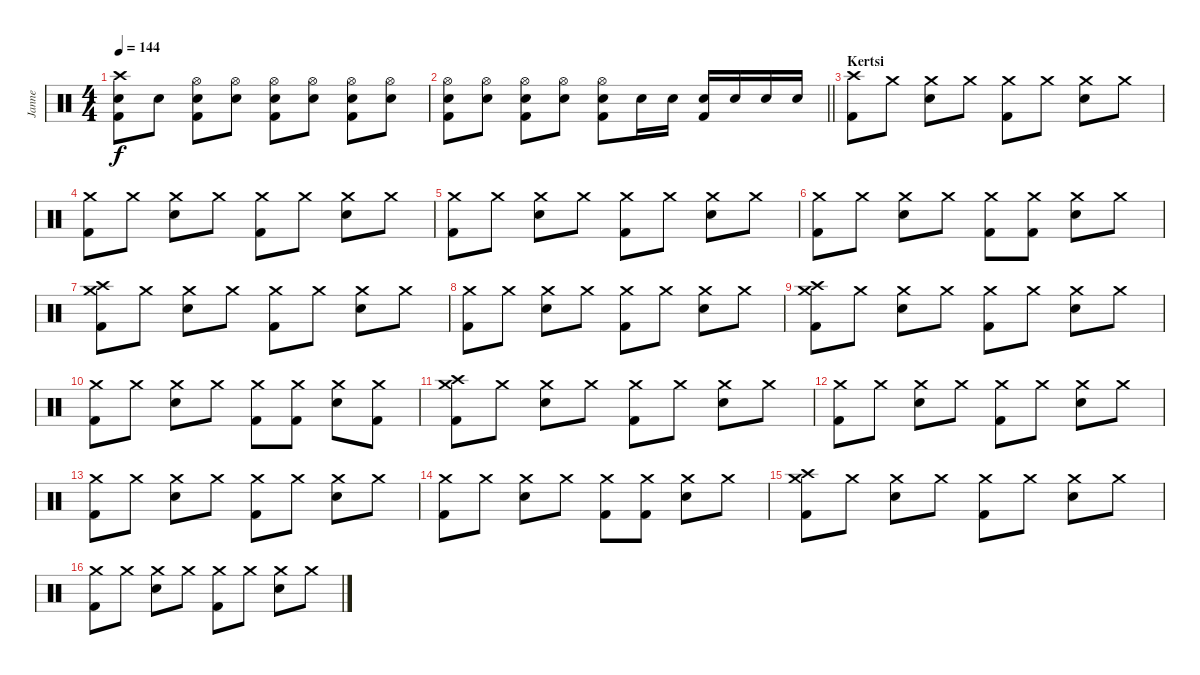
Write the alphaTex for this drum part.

\track ("Janne" "Janne") {instrument percussion}
\staff {score}
\articulation defaults
\ts (4 4)
\tempo 144
\clef neutral
\ks c
("Crash high (hit)" "Electric Snare (hit)" "Kick (hit) 2").8{dy f} "Electric Snare (hit)".8 ("Hi-Hat (open)" "Electric Snare (hit)" "Kick (hit) 2").8 ("Hi-Hat (open)" "Electric Snare (hit)").8 ("Hi-Hat (open)" "Electric Snare (hit)" "Kick (hit) 2").8 ("Hi-Hat (open)" "Electric Snare (hit)").8 ("Hi-Hat (open)" "Electric Snare (hit)" "Kick (hit) 2").8 ("Hi-Hat (open)" "Electric Snare (hit)").8 |
\barLineRight lightlight
("Hi-Hat (open)" "Electric Snare (hit)" "Kick (hit) 2").8 ("Hi-Hat (open)" "Electric Snare (hit)").8 ("Hi-Hat (open)" "Electric Snare (hit)" "Kick (hit) 2").8 ("Hi-Hat (open)" "Electric Snare (hit)").8 ("Hi-Hat (open)" "Electric Snare (hit)" "Kick (hit) 2").8 "Electric Snare (hit)".16 "Electric Snare (hit)".16 ("Electric Snare (hit)" "Kick (hit) 2").16 "Electric Snare (hit)".16 "Electric Snare (hit)".16 "Electric Snare (hit)".16 |
\section ("" "Kertsi")
("Crash high (hit)" "Kick (hit) 2").8 "Crash medium (hit)".8 ("Crash medium (hit)" "Electric Snare (hit)").8 "Crash medium (hit)".8 ("Crash medium (hit)" "Kick (hit) 2").8 "Crash medium (hit)".8 ("Crash medium (hit)" "Electric Snare (hit)").8 "Crash medium (hit)".8 |
("Crash medium (hit)" "Kick (hit) 2").8 "Crash medium (hit)".8 ("Crash medium (hit)" "Electric Snare (hit)").8 "Crash medium (hit)".8 ("Crash medium (hit)" "Kick (hit) 2").8 "Crash medium (hit)".8 ("Crash medium (hit)" "Electric Snare (hit)").8 "Crash medium (hit)".8 |
("Crash medium (hit)" "Kick (hit) 2").8 "Crash medium (hit)".8 ("Crash medium (hit)" "Electric Snare (hit)").8 "Crash medium (hit)".8 ("Crash medium (hit)" "Kick (hit) 2").8 "Crash medium (hit)".8 ("Crash medium (hit)" "Electric Snare (hit)").8 "Crash medium (hit)".8 |
("Crash medium (hit)" "Kick (hit) 2").8 "Crash medium (hit)".8 ("Crash medium (hit)" "Electric Snare (hit)").8 "Crash medium (hit)".8 ("Crash medium (hit)" "Kick (hit) 2").8 ("Crash medium (hit)" "Kick (hit) 2").8 ("Crash medium (hit)" "Electric Snare (hit)").8 "Crash medium (hit)".8 |
("Crash medium (hit)" "Crash high (hit)" "Kick (hit) 2").8 "Crash medium (hit)".8 ("Crash medium (hit)" "Electric Snare (hit)").8 "Crash medium (hit)".8 ("Crash medium (hit)" "Kick (hit) 2").8 "Crash medium (hit)".8 ("Crash medium (hit)" "Electric Snare (hit)").8 "Crash medium (hit)".8 |
("Crash medium (hit)" "Kick (hit) 2").8 "Crash medium (hit)".8 ("Crash medium (hit)" "Electric Snare (hit)").8 "Crash medium (hit)".8 ("Crash medium (hit)" "Kick (hit) 2").8 "Crash medium (hit)".8 ("Crash medium (hit)" "Electric Snare (hit)").8 "Crash medium (hit)".8 |
("Crash medium (hit)" "Crash high (hit)" "Kick (hit) 2").8 "Crash medium (hit)".8 ("Crash medium (hit)" "Electric Snare (hit)").8 "Crash medium (hit)".8 ("Crash medium (hit)" "Kick (hit) 2").8 "Crash medium (hit)".8 ("Crash medium (hit)" "Electric Snare (hit)").8 "Crash medium (hit)".8 |
("Crash medium (hit)" "Kick (hit) 2").8 "Crash medium (hit)".8 ("Crash medium (hit)" "Electric Snare (hit)").8 "Crash medium (hit)".8 ("Crash medium (hit)" "Kick (hit) 2").8 ("Crash medium (hit)" "Kick (hit) 2").8 ("Crash medium (hit)" "Electric Snare (hit)").8 ("Crash medium (hit)" "Kick (hit) 2").8 |
("Crash high (hit)" "Crash medium (hit)" "Kick (hit) 2").8 "Crash medium (hit)".8 ("Crash medium (hit)" "Electric Snare (hit)").8 "Crash medium (hit)".8 ("Crash medium (hit)" "Kick (hit) 2").8 "Crash medium (hit)".8 ("Crash medium (hit)" "Electric Snare (hit)").8 "Crash medium (hit)".8 |
("Crash medium (hit)" "Kick (hit) 2").8 "Crash medium (hit)".8 ("Crash medium (hit)" "Electric Snare (hit)").8 "Crash medium (hit)".8 ("Crash medium (hit)" "Kick (hit) 2").8 "Crash medium (hit)".8 ("Crash medium (hit)" "Electric Snare (hit)").8 "Crash medium (hit)".8 |
("Crash medium (hit)" "Kick (hit) 2").8 "Crash medium (hit)".8 ("Crash medium (hit)" "Electric Snare (hit)").8 "Crash medium (hit)".8 ("Crash medium (hit)" "Kick (hit) 2").8 "Crash medium (hit)".8 ("Crash medium (hit)" "Electric Snare (hit)").8 "Crash medium (hit)".8 |
("Crash medium (hit)" "Kick (hit) 2").8 "Crash medium (hit)".8 ("Crash medium (hit)" "Electric Snare (hit)").8 "Crash medium (hit)".8 ("Crash medium (hit)" "Kick (hit) 2").8 ("Crash medium (hit)" "Kick (hit) 2").8 ("Crash medium (hit)" "Electric Snare (hit)").8 "Crash medium (hit)".8 |
("Crash medium (hit)" "Crash high (hit)" "Kick (hit) 2").8 "Crash medium (hit)".8 ("Crash medium (hit)" "Electric Snare (hit)").8 "Crash medium (hit)".8 ("Crash medium (hit)" "Kick (hit) 2").8 "Crash medium (hit)".8 ("Crash medium (hit)" "Electric Snare (hit)").8 "Crash medium (hit)".8 |
("Crash medium (hit)" "Kick (hit) 2").8 "Crash medium (hit)".8 ("Crash medium (hit)" "Electric Snare (hit)").8 "Crash medium (hit)".8 ("Crash medium (hit)" "Kick (hit) 2").8 "Crash medium (hit)".8 ("Crash medium (hit)" "Electric Snare (hit)").8 "Crash medium (hit)".8
